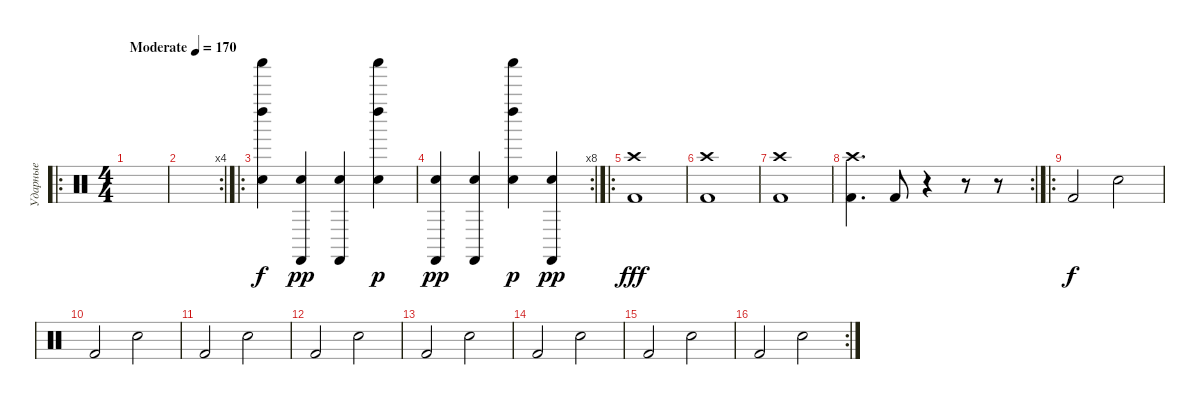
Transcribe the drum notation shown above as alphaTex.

\track ("Ударные" "Ударные") {instrument percussion}
\staff {score}
\articulation defaults
\ro
\ts (4 4)
\tempo (170 "Moderate")
\clef neutral
\ks c
|
\rc 4
|
\ro
("Left Maraca (hit)" "Shaker (hit)" "Electric Snare (hit)").4 ("Castanets (hit)" "Snare (hit) 2").4{dy pp} ("Castanets (hit)" "Snare (hit) 2").4 ("Left Maraca (hit)" "Shaker (hit)" "Electric Snare (hit)").4{dy p} |
\rc 8
("Castanets (hit)" "Snare (hit) 2").4{dy pp} ("Castanets (hit)" "Snare (hit) 2").4 ("Left Maraca (hit)" "Shaker (hit)" "Electric Snare (hit)").4{dy p} ("Castanets (hit)" "Snare (hit) 2").4{dy pp} |
\ro
("Kick (hit) 2" "Crash high (hit)").1{dy fff} |
("Kick (hit) 2" "Crash high (hit)").1 |
("Kick (hit) 2" "Crash high (hit)").1 |
\rc 2
("Kick (hit) 2" "Crash high (hit)").4{d} "Kick (hit) 2".8 r.4 r.8 r.8 |
\ro "Kick (hit) 2".2{dy f} "Electric Snare (hit)".2
|
"Kick (hit) 2".2 "Electric Snare (hit)".2 |
"Kick (hit) 2".2 "Electric Snare (hit)".2 |
"Kick (hit) 2".2 "Electric Snare (hit)".2 |
"Kick (hit) 2".2 "Electric Snare (hit)".2 |
"Kick (hit) 2".2 "Electric Snare (hit)".2 |
"Kick (hit) 2".2 "Electric Snare (hit)".2 |
\rc 2 "Kick (hit) 2".2 "Electric Snare (hit)".2
